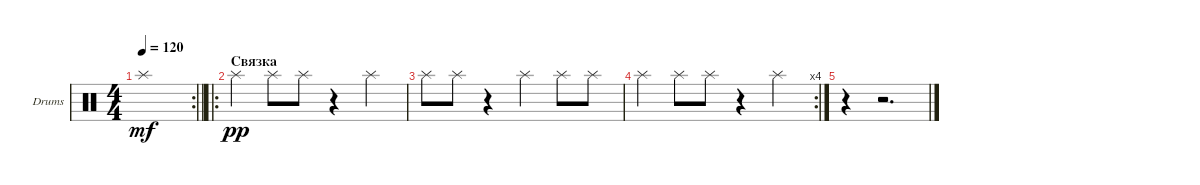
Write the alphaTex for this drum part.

\bracketExtendMode groupsimilarinstruments
\firstSystemTrackNameOrientation horizontal
\otherSystemsTrackNameOrientation horizontal
\track ("Drumkit" "Drums") {instrument percussion}
\staff {score}
\articulation defaults
\rc 2
\ts (4 4)
\tempo 120
\clef neutral
\barLineRight lightlight
\ks c "Splash (hit)".1{dy mf}
|
\ro
\section ("" "Связка")
"Splash (hit)".4{dy pp} "Splash (hit)".8 "Splash (hit)".8 r.4 "Splash (hit)".4 |
"Splash (hit)".8 "Splash (hit)".8 r.4 "Splash (hit)".4 "Splash (hit)".8 "Splash (hit)".8 |
\rc 4 "Splash (hit)".4 "Splash (hit)".8 "Splash (hit)".8
r.4 "Splash (hit)".4 |
r.4 r.2{d}
